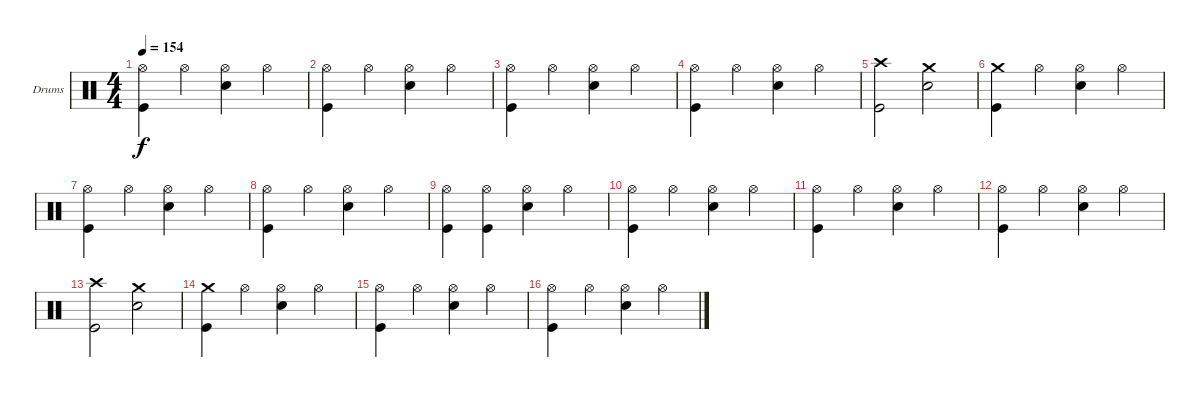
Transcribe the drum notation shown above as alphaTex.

\bracketExtendMode groupsimilarinstruments
\firstSystemTrackNameOrientation horizontal
\otherSystemsTrackNameOrientation horizontal
\track ("Drumkit (Christoph)" "Drums") {instrument percussion}
\staff {score}
\articulation defaults
\ts (4 4)
\tempo 154
\clef neutral
\ks c
("Hi-Hat (open)" "Kick (hit)").4{dy f} "Hi-Hat (open)".4 ("Hi-Hat (open)" "Snare (hit) 2").4 "Hi-Hat (open)".4 |
("Hi-Hat (open)" "Kick (hit)").4 "Hi-Hat (open)".4 ("Hi-Hat (open)" "Snare (hit) 2").4 "Hi-Hat (open)".4 |
("Hi-Hat (open)" "Kick (hit)").4 "Hi-Hat (open)".4 ("Hi-Hat (open)" "Snare (hit) 2").4 "Hi-Hat (open)".4 |
("Hi-Hat (open)" "Kick (hit)").4 "Hi-Hat (open)".4 ("Hi-Hat (open)" "Snare (hit) 2").4 "Hi-Hat (open)".4 |
("Crash high (hit)" "Kick (hit)").2 ("Crash medium (hit)" "Snare (hit) 2").2 |
("Crash medium (hit)" "Kick (hit)").4 "Hi-Hat (open)".4 ("Hi-Hat (open)" "Snare (hit) 2").4 "Hi-Hat (open)".4 |
("Hi-Hat (open)" "Kick (hit)").4 "Hi-Hat (open)".4 ("Hi-Hat (open)" "Snare (hit) 2").4 "Hi-Hat (open)".4 |
("Hi-Hat (open)" "Kick (hit)").4 "Hi-Hat (open)".4 ("Hi-Hat (open)" "Snare (hit) 2").4 "Hi-Hat (open)".4 |
("Hi-Hat (open)" "Kick (hit)").4 ("Hi-Hat (open)" "Kick (hit)").4 ("Hi-Hat (open)" "Snare (hit) 2").4 "Hi-Hat (open)".4 |
("Hi-Hat (open)" "Kick (hit)").4 "Hi-Hat (open)".4 ("Hi-Hat (open)" "Snare (hit) 2").4 "Hi-Hat (open)".4 |
("Hi-Hat (open)" "Kick (hit)").4 "Hi-Hat (open)".4 ("Hi-Hat (open)" "Snare (hit) 2").4 "Hi-Hat (open)".4 |
("Hi-Hat (open)" "Kick (hit)").4 "Hi-Hat (open)".4 ("Hi-Hat (open)" "Snare (hit) 2").4 "Hi-Hat (open)".4 |
("Crash high (hit)" "Kick (hit)").2 ("Crash medium (hit)" "Snare (hit) 2").2 |
("Crash medium (hit)" "Kick (hit)").4 "Hi-Hat (open)".4 ("Hi-Hat (open)" "Snare (hit) 2").4 "Hi-Hat (open)".4 |
("Hi-Hat (open)" "Kick (hit)").4 "Hi-Hat (open)".4 ("Hi-Hat (open)" "Snare (hit) 2").4 "Hi-Hat (open)".4 |
("Hi-Hat (open)" "Kick (hit)").4 "Hi-Hat (open)".4 ("Hi-Hat (open)" "Snare (hit) 2").4 "Hi-Hat (open)".4
